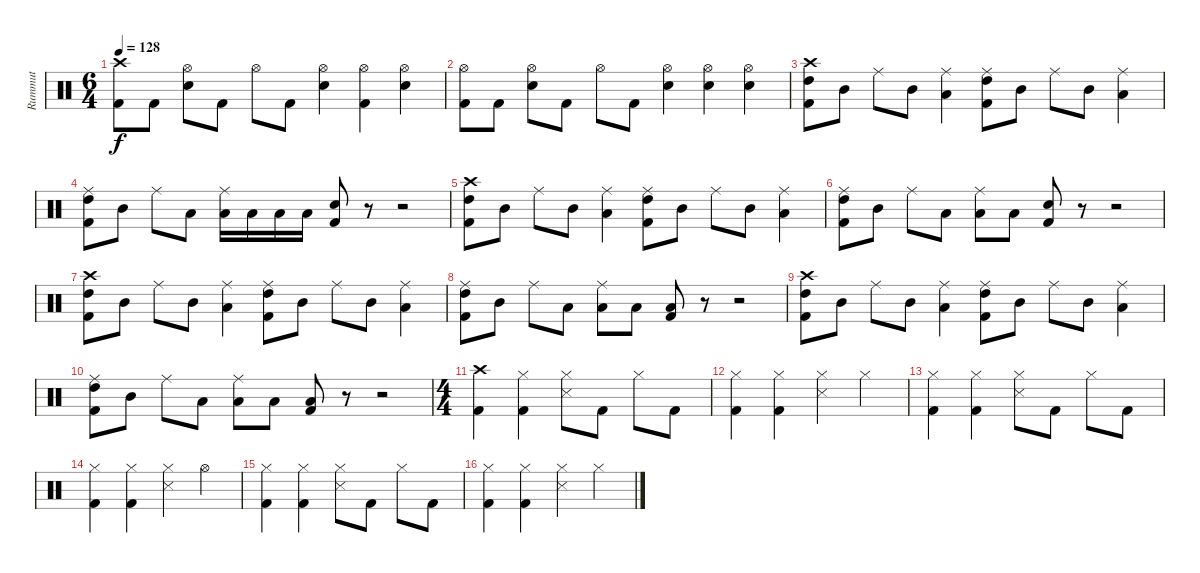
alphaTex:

\track ("Rummut" "Rummut") {instrument percussion}
\staff {score}
\articulation defaults
\ts (6 4)
\tempo 128
\clef neutral
\ks aminor
("Crash high (hit)" "Kick (hit) 2").8{dy f} "Kick (hit) 2".8 ("Hi-Hat (open)" "Electric Snare (hit)").8 "Kick (hit) 2".8 "Hi-Hat (open)".8 "Kick (hit) 2".8 ("Hi-Hat (open)" "Electric Snare (hit)").4 ("Hi-Hat (open)" "Kick (hit) 2").4 ("Hi-Hat (open)" "Electric Snare (hit)").4 |
("Hi-Hat (open)" "Kick (hit) 2").8 "Kick (hit) 2".8 ("Hi-Hat (open)" "Electric Snare (hit)").8 "Kick (hit) 2".8 "Hi-Hat (open)".8 "Kick (hit) 2".8 ("Hi-Hat (open)" "Electric Snare (hit)").4 ("Hi-Hat (open)" "Electric Snare (hit)").4 ("Hi-Hat (open)" "Electric Snare (hit)").4 |
("Crash high (hit)" "High Tom (hit)" "Kick (hit) 2").8 "Mid Tom (hit)".8 "Ride (middle)".8 "Mid Tom (hit)".8 ("Ride (middle)" "Low Tom (hit)").4 ("Ride (middle)" "High Tom (hit)" "Kick (hit) 2").8 "Mid Tom (hit)".8 "Ride (middle)".8 "Mid Tom (hit)".8 ("Ride (middle)" "Low Tom (hit)").4 |
("Ride (middle)" "High Tom (hit)" "Kick (hit) 2").8 "Mid Tom (hit)".8 "Ride (middle)".8 "Low Tom (hit)".8 ("Ride (middle)" "Low Tom (hit)").16 "Low Tom (hit)".16 "Low Tom (hit)".16 "Low Tom (hit)".16 ("Electric Snare (hit)" "Kick (hit) 2").8 r.8 r.2 |
("Crash high (hit)" "High Tom (hit)" "Kick (hit) 2").8 "Mid Tom (hit)".8 "Ride (middle)".8 "Mid Tom (hit)".8 ("Ride (middle)" "Low Tom (hit)").4 ("Ride (middle)" "High Tom (hit)" "Kick (hit) 2").8 "Mid Tom (hit)".8 "Ride (middle)".8 "Mid Tom (hit)".8 ("Ride (middle)" "Low Tom (hit)").4 |
("Ride (middle)" "High Tom (hit)" "Kick (hit) 2").8 "Mid Tom (hit)".8 "Ride (middle)".8 "Low Tom (hit)".8 ("Ride (middle)" "Low Tom (hit)").8 "Low Tom (hit)".8 ("Electric Snare (hit)" "Kick (hit) 2").8 r.8 r.2 |
("Crash high (hit)" "High Tom (hit)" "Kick (hit) 2").8 "Mid Tom (hit)".8 "Ride (middle)".8 "Mid Tom (hit)".8 ("Ride (middle)" "Low Tom (hit)").4 ("Ride (middle)" "High Tom (hit)" "Kick (hit) 2").8 "Mid Tom (hit)".8 "Ride (middle)".8 "Mid Tom (hit)".8 ("Ride (middle)" "Low Tom (hit)").4 |
("Ride (middle)" "High Tom (hit)" "Kick (hit) 2").8 "Mid Tom (hit)".8 "Ride (middle)".8 "Low Tom (hit)".8 ("Ride (middle)" "Low Tom (hit)").8 "Low Tom (hit)".8 ("Low Tom (hit)" "Kick (hit) 2").8 r.8 r.2 |
("Crash high (hit)" "High Tom (hit)" "Kick (hit) 2").8 "Mid Tom (hit)".8 "Ride (middle)".8 "Mid Tom (hit)".8 ("Ride (middle)" "Low Tom (hit)").4 ("Ride (middle)" "High Tom (hit)" "Kick (hit) 2").8 "Mid Tom (hit)".8 "Ride (middle)".8 "Mid Tom (hit)".8 ("Ride (middle)" "Low Tom (hit)").4 |
("Ride (middle)" "High Tom (hit)" "Kick (hit) 2").8 "Mid Tom (hit)".8 "Ride (middle)".8 "Low Tom (hit)".8 ("Ride (middle)" "Low Tom (hit)").8 "Low Tom (hit)".8 ("Low Tom (hit)" "Kick (hit) 2").8 r.8 r.2 |
\ts (4 4)
("Crash high (hit)" "Kick (hit) 2").4 ("Hi-Hat (closed)" "Kick (hit) 2").4 ("Hi-Hat (closed)" "Snare (side stick) 3").8 "Kick (hit) 2".8 "Hi-Hat (closed)".8 "Kick (hit) 2".8 |
("Hi-Hat (closed)" "Kick (hit) 2").4 ("Hi-Hat (closed)" "Kick (hit) 2").4 ("Hi-Hat (closed)" "Snare (side stick) 3").4 "Hi-Hat (closed)".4 |
("Hi-Hat (closed)" "Kick (hit) 2").4 ("Hi-Hat (closed)" "Kick (hit) 2").4 ("Hi-Hat (closed)" "Snare (side stick) 3").8 "Kick (hit) 2".8 "Hi-Hat (closed)".8 "Kick (hit) 2".8 |
("Hi-Hat (closed)" "Kick (hit) 2").4 ("Hi-Hat (closed)" "Kick (hit) 2").4 ("Hi-Hat (closed)" "Snare (side stick) 3").4 "Hi-Hat (open)".4 |
("Hi-Hat (closed)" "Kick (hit) 2").4 ("Hi-Hat (closed)" "Kick (hit) 2").4 ("Hi-Hat (closed)" "Snare (side stick) 3").8 "Kick (hit) 2".8 "Hi-Hat (closed)".8 "Kick (hit) 2".8 |
("Hi-Hat (closed)" "Kick (hit) 2").4 ("Hi-Hat (closed)" "Kick (hit) 2").4 ("Hi-Hat (closed)" "Snare (side stick) 3").4 "Hi-Hat (closed)".4
